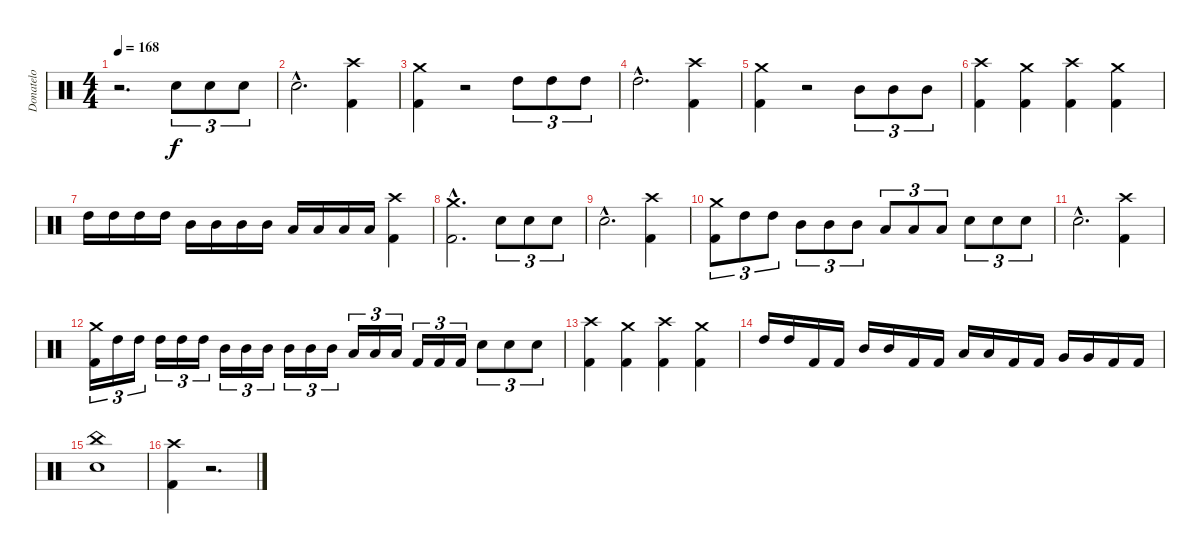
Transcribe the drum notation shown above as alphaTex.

\track ("Donatelo" "Donatelo") {instrument percussion}
\staff {score}
\articulation defaults
\ts (4 4)
\tempo 168
\clef neutral
\ks c
r.2{d dy f} "Electric Snare (hit)".8{tu (3 2)} "Electric Snare (hit)".8{tu (3 2)} "Electric Snare (hit)".8{tu (3 2)} |
"Electric Snare (hit)"{hac}.2{d} ("Kick (hit) 2" "Crash high (hit)").4 |
("Kick (hit) 2" "Crash medium (hit)").4 r.2 "High Tom (hit)".8{tu (3 2)} "High Tom (hit)".8{tu (3 2)} "High Tom (hit)".8{tu (3 2)} |
"High Tom (hit)"{hac}.2{d} ("Kick (hit) 2" "Crash high (hit)").4 |
("Kick (hit) 2" "Crash medium (hit)").4 r.2 "Mid Tom (hit)".8{tu (3 2)} "Mid Tom (hit)".8{tu (3 2)} "Mid Tom (hit)".8{tu (3 2)} |
("Kick (hit) 2" "Crash high (hit)").4 ("Kick (hit) 2" "Crash medium (hit)").4 ("Kick (hit) 2" "Crash high (hit)").4 ("Kick (hit) 2" "Crash medium (hit)").4 |
"High Tom (hit)".16 "High Tom (hit)".16 "High Tom (hit)".16 "High Tom (hit)".16 "Mid Tom (hit)".16 "Mid Tom (hit)".16 "Mid Tom (hit)".16 "Mid Tom (hit)".16 "Low Tom (hit)".16 "Low Tom (hit)".16 "Low Tom (hit)".16 "Low Tom (hit)".16 ("Kick (hit) 2" "Crash high (hit)").4 |
("Kick (hit) 2"{hac} "Crash medium (hit)"{hac}).2{d} "Electric Snare (hit)".8{tu (3 2)} "Electric Snare (hit)".8{tu (3 2)} "Electric Snare (hit)".8{tu (3 2)} |
"Electric Snare (hit)"{hac}.2{d} ("Kick (hit) 2" "Crash high (hit)").4 |
("Kick (hit) 2" "Crash medium (hit)").8{tu (3 2)} "High Tom (hit)".8{tu (3 2)} "High Tom (hit)".8{tu (3 2)} "Mid Tom (hit)".8{tu (3 2)} "Mid Tom (hit)".8{tu (3 2)} "Mid Tom (hit)".8{tu (3 2)} "Low Tom (hit)".8{tu (3 2)} "Low Tom (hit)".8{tu (3 2)} "Low Tom (hit)".8{tu (3 2)} "Electric Snare (hit)".8{tu (3 2)} "Electric Snare (hit)".8{tu (3 2)} "Electric Snare (hit)".8{tu (3 2)} |
"Electric Snare (hit)"{hac}.2{d} ("Kick (hit) 2" "Crash high (hit)").4 |
("Kick (hit) 2" "Crash medium (hit)").16{tu (3 2)} "High Tom (hit)".16{tu (3 2)} "High Tom (hit)".16{tu (3 2)} "High Tom (hit)".16{tu (3 2)} "High Tom (hit)".16{tu (3 2)} "High Tom (hit)".16{tu (3 2)} "Mid Tom (hit)".16{tu (3 2)} "Mid Tom (hit)".16{tu (3 2)} "Mid Tom (hit)".16{tu (3 2)} "Mid Tom (hit)".16{tu (3 2)} "Mid Tom (hit)".16{tu (3 2)} "Mid Tom (hit)".16{tu (3 2)} "Low Tom (hit)".16{tu (3 2)} "Low Tom (hit)".16{tu (3 2)} "Low Tom (hit)".16{tu (3 2)} "Kick (hit) 2".16{tu (3 2)} "Kick (hit) 2".16{tu (3 2)} "Kick (hit) 2".16{tu (3 2)} "Electric Snare (hit)".8{tu (3 2)} "Electric Snare (hit)".8{tu (3 2)} "Electric Snare (hit)".8{tu (3 2)} |
("Kick (hit) 2" "Crash high (hit)").4 ("Kick (hit) 2" "Crash medium (hit)").4 ("Kick (hit) 2" "Crash high (hit)").4 ("Kick (hit) 2" "Crash medium (hit)").4 |
"High Tom (hit)".16 "High Tom (hit)".16 "Kick (hit) 2".16 "Kick (hit) 2".16 "Mid Tom (hit)".16 "Mid Tom (hit)".16 "Kick (hit) 2".16 "Kick (hit) 2".16 "Low Tom (hit)".16 "Low Tom (hit)".16 "Kick (hit) 2".16 "Kick (hit) 2".16 "Very Low Tom (hit)".16 "Very Low Tom (hit)".16 "Kick (hit) 2".16 "Kick (hit) 2".16 |
("Electric Snare (hit)" "China (hit)").1 |
("Kick (hit) 2" "Crash high (hit)").4 r.2{d}
